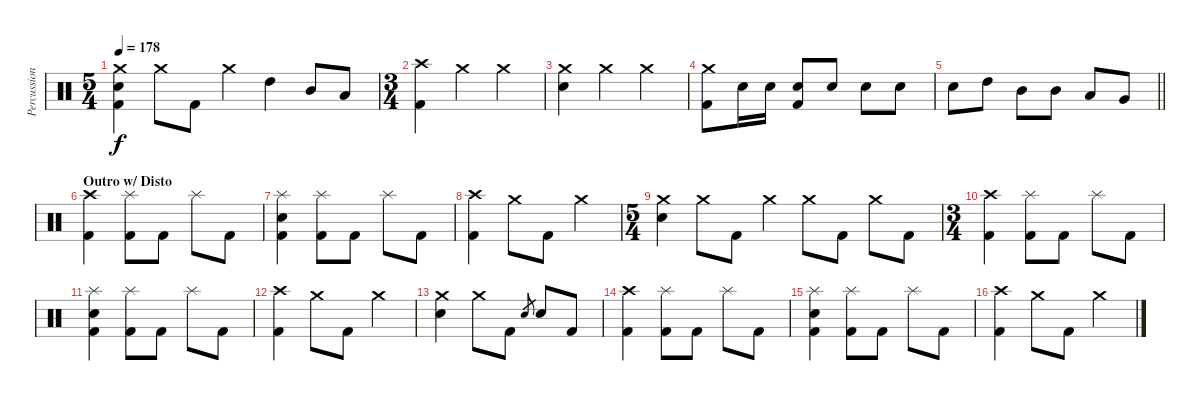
\track ("Percussion" "Percussion") {instrument percussion}
\staff {score}
\articulation defaults
\ts (5 4)
\tempo 178
\clef neutral
\ks c
("Crash medium (hit)" "Electric Snare (hit)" "Kick (hit) 2").4{dy f} "Crash medium (hit)".8 "Kick (hit) 2".8 "Crash medium (hit)".4 "High Tom (hit)".4 "Mid Tom (hit)".8 "Low Tom (hit)".8 |
\ts (3 4)
("Crash high (hit)" "Kick (hit) 2").4 "Crash medium (hit)".4 "Crash medium (hit)".4 |
("Crash medium (hit)" "Electric Snare (hit)").4 "Crash medium (hit)".4 "Crash medium (hit)".4 |
("Crash medium (hit)" "Kick (hit) 2").8 "Electric Snare (hit)".16 "Electric Snare (hit)".16 ("Electric Snare (hit)" "Kick (hit) 2").8 "Electric Snare (hit)".8 "Electric Snare (hit)".8 "Electric Snare (hit)".8 |
\barLineRight lightlight "Electric Snare (hit)".8 "High Tom (hit)".8 "Mid Tom (hit)".8 "Mid Tom (hit)".8 "Low Tom (hit)".8 "Very Low Tom (hit)".8
|
\section ("" "Outro w/ Disto")
("Crash high (hit)" "Kick (hit) 2").4 ("Splash (hit)" "Kick (hit) 2").8 "Kick (hit) 2".8 "Splash (hit)".8 "Kick (hit) 2".8 |
("Splash (hit)" "Electric Snare (hit)" "Kick (hit) 2").4 ("Splash (hit)" "Kick (hit) 2").8 "Kick (hit) 2".8 "Splash (hit)".8 "Kick (hit) 2".8 |
("Crash high (hit)" "Kick (hit) 2").4 "Crash medium (hit)".8 "Kick (hit) 2".8 "Crash medium (hit)".4 |
\ts (5 4)
("Crash medium (hit)" "Electric Snare (hit)").4 "Crash medium (hit)".8 "Kick (hit) 2".8 "Crash medium (hit)".4 "Crash medium (hit)".8 "Kick (hit) 2".8 "Crash medium (hit)".8 "Kick (hit) 2".8 |
\ts (3 4)
("Crash high (hit)" "Kick (hit) 2").4 ("Splash (hit)" "Kick (hit) 2").8 "Kick (hit) 2".8 "Splash (hit)".8 "Kick (hit) 2".8 |
("Splash (hit)" "Electric Snare (hit)" "Kick (hit) 2").4 ("Splash (hit)" "Kick (hit) 2").8 "Kick (hit) 2".8 "Splash (hit)".8 "Kick (hit) 2".8 |
("Crash high (hit)" "Kick (hit) 2").4 "Crash medium (hit)".8 "Kick (hit) 2".8 "Crash medium (hit)".4 |
("Crash medium (hit)" "Electric Snare (hit)").4 "Crash medium (hit)".8 "Kick (hit) 2".8 "Electric Snare (hit)".8{gr} "Electric Snare (hit)".8 "Kick (hit) 2".8 |
("Crash high (hit)" "Kick (hit) 2").4 ("Splash (hit)" "Kick (hit) 2").8 "Kick (hit) 2".8 "Splash (hit)".8 "Kick (hit) 2".8 |
("Splash (hit)" "Electric Snare (hit)" "Kick (hit) 2").4 ("Splash (hit)" "Kick (hit) 2").8 "Kick (hit) 2".8 "Splash (hit)".8 "Kick (hit) 2".8 |
("Crash high (hit)" "Kick (hit) 2").4 "Crash medium (hit)".8 "Kick (hit) 2".8 "Crash medium (hit)".4
